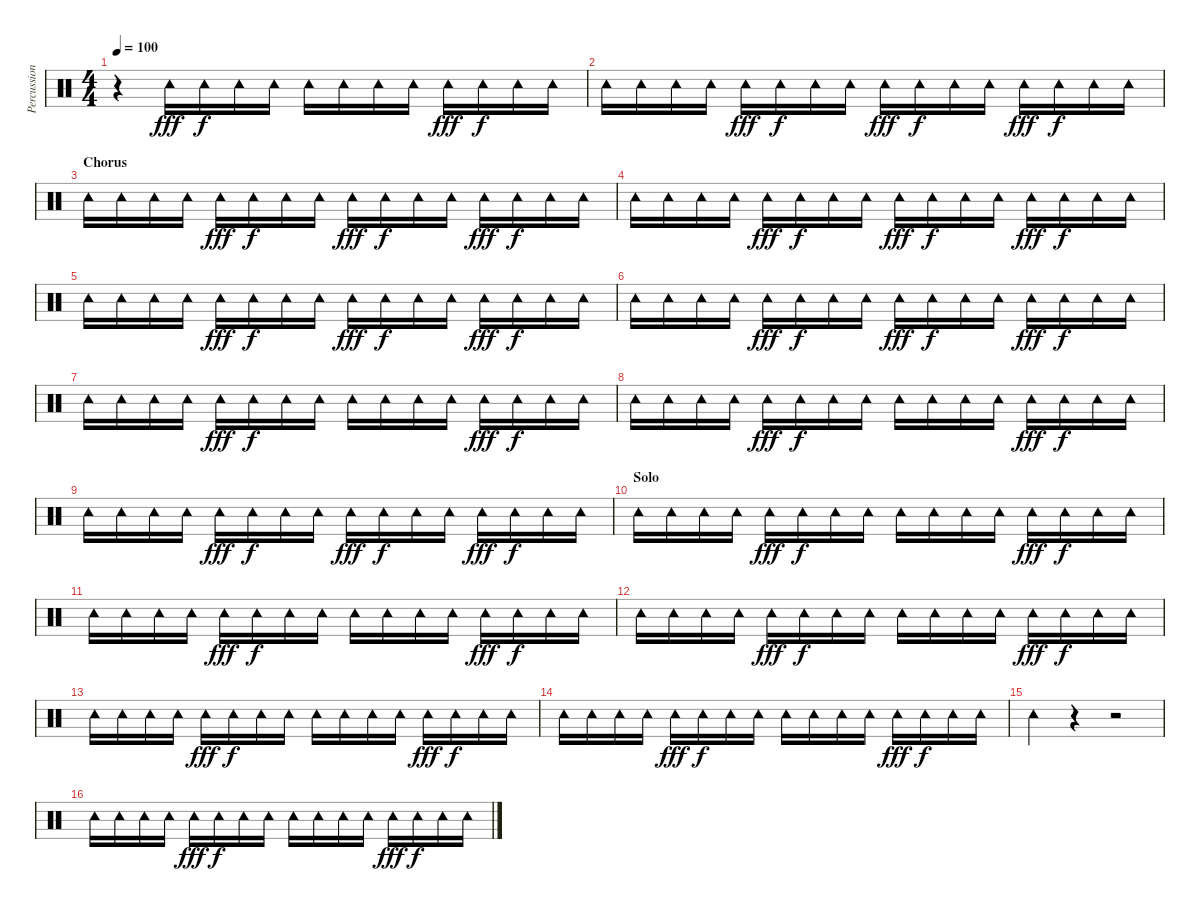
\track ("Percussion" "Percussion") {instrument percussion}
\staff {score}
\articulation defaults
\ts (4 4)
\tempo 100
\clef neutral
\ks c
r.4{dy f} "Tambourine (hit)".16{dy fff} "Tambourine (hit)".16{dy f} "Tambourine (hit)".16 "Tambourine (hit)".16 "Tambourine (hit)".16 "Tambourine (hit)".16 "Tambourine (hit)".16 "Tambourine (hit)".16 "Tambourine (hit)".16{dy fff} "Tambourine (hit)".16{dy f} "Tambourine (hit)".16 "Tambourine (hit)".16 |
"Tambourine (hit)".16 "Tambourine (hit)".16 "Tambourine (hit)".16 "Tambourine (hit)".16 "Tambourine (hit)".16{dy fff} "Tambourine (hit)".16{dy f} "Tambourine (hit)".16 "Tambourine (hit)".16 "Tambourine (hit)".16{dy fff} "Tambourine (hit)".16{dy f} "Tambourine (hit)".16 "Tambourine (hit)".16 "Tambourine (hit)".16{dy fff} "Tambourine (hit)".16{dy f} "Tambourine (hit)".16 "Tambourine (hit)".16 |
\section ("" "Chorus")
"Tambourine (hit)".16 "Tambourine (hit)".16 "Tambourine (hit)".16 "Tambourine (hit)".16 "Tambourine (hit)".16{dy fff} "Tambourine (hit)".16{dy f} "Tambourine (hit)".16 "Tambourine (hit)".16 "Tambourine (hit)".16{dy fff} "Tambourine (hit)".16{dy f} "Tambourine (hit)".16 "Tambourine (hit)".16 "Tambourine (hit)".16{dy fff} "Tambourine (hit)".16{dy f} "Tambourine (hit)".16 "Tambourine (hit)".16 |
"Tambourine (hit)".16 "Tambourine (hit)".16 "Tambourine (hit)".16 "Tambourine (hit)".16 "Tambourine (hit)".16{dy fff} "Tambourine (hit)".16{dy f} "Tambourine (hit)".16 "Tambourine (hit)".16 "Tambourine (hit)".16{dy fff} "Tambourine (hit)".16{dy f} "Tambourine (hit)".16 "Tambourine (hit)".16 "Tambourine (hit)".16{dy fff} "Tambourine (hit)".16{dy f} "Tambourine (hit)".16 "Tambourine (hit)".16 |
"Tambourine (hit)".16 "Tambourine (hit)".16 "Tambourine (hit)".16 "Tambourine (hit)".16 "Tambourine (hit)".16{dy fff} "Tambourine (hit)".16{dy f} "Tambourine (hit)".16 "Tambourine (hit)".16 "Tambourine (hit)".16{dy fff} "Tambourine (hit)".16{dy f} "Tambourine (hit)".16 "Tambourine (hit)".16 "Tambourine (hit)".16{dy fff} "Tambourine (hit)".16{dy f} "Tambourine (hit)".16 "Tambourine (hit)".16 |
"Tambourine (hit)".16 "Tambourine (hit)".16 "Tambourine (hit)".16 "Tambourine (hit)".16 "Tambourine (hit)".16{dy fff} "Tambourine (hit)".16{dy f} "Tambourine (hit)".16 "Tambourine (hit)".16 "Tambourine (hit)".16{dy fff} "Tambourine (hit)".16{dy f} "Tambourine (hit)".16 "Tambourine (hit)".16 "Tambourine (hit)".16{dy fff} "Tambourine (hit)".16{dy f} "Tambourine (hit)".16 "Tambourine (hit)".16 |
"Tambourine (hit)".16 "Tambourine (hit)".16 "Tambourine (hit)".16 "Tambourine (hit)".16 "Tambourine (hit)".16{dy fff} "Tambourine (hit)".16{dy f} "Tambourine (hit)".16 "Tambourine (hit)".16 "Tambourine (hit)".16 "Tambourine (hit)".16 "Tambourine (hit)".16 "Tambourine (hit)".16 "Tambourine (hit)".16{dy fff} "Tambourine (hit)".16{dy f} "Tambourine (hit)".16 "Tambourine (hit)".16 |
"Tambourine (hit)".16 "Tambourine (hit)".16 "Tambourine (hit)".16 "Tambourine (hit)".16 "Tambourine (hit)".16{dy fff} "Tambourine (hit)".16{dy f} "Tambourine (hit)".16 "Tambourine (hit)".16 "Tambourine (hit)".16 "Tambourine (hit)".16 "Tambourine (hit)".16 "Tambourine (hit)".16 "Tambourine (hit)".16{dy fff} "Tambourine (hit)".16{dy f} "Tambourine (hit)".16 "Tambourine (hit)".16 |
"Tambourine (hit)".16 "Tambourine (hit)".16 "Tambourine (hit)".16 "Tambourine (hit)".16 "Tambourine (hit)".16{dy fff} "Tambourine (hit)".16{dy f} "Tambourine (hit)".16 "Tambourine (hit)".16 "Tambourine (hit)".16{dy fff} "Tambourine (hit)".16{dy f} "Tambourine (hit)".16 "Tambourine (hit)".16 "Tambourine (hit)".16{dy fff} "Tambourine (hit)".16{dy f} "Tambourine (hit)".16 "Tambourine (hit)".16 |
\section ("" "Solo")
"Tambourine (hit)".16 "Tambourine (hit)".16 "Tambourine (hit)".16 "Tambourine (hit)".16 "Tambourine (hit)".16{dy fff} "Tambourine (hit)".16{dy f} "Tambourine (hit)".16 "Tambourine (hit)".16 "Tambourine (hit)".16 "Tambourine (hit)".16 "Tambourine (hit)".16 "Tambourine (hit)".16 "Tambourine (hit)".16{dy fff} "Tambourine (hit)".16{dy f} "Tambourine (hit)".16 "Tambourine (hit)".16 |
"Tambourine (hit)".16 "Tambourine (hit)".16 "Tambourine (hit)".16 "Tambourine (hit)".16 "Tambourine (hit)".16{dy fff} "Tambourine (hit)".16{dy f} "Tambourine (hit)".16 "Tambourine (hit)".16 "Tambourine (hit)".16 "Tambourine (hit)".16 "Tambourine (hit)".16 "Tambourine (hit)".16 "Tambourine (hit)".16{dy fff} "Tambourine (hit)".16{dy f} "Tambourine (hit)".16 "Tambourine (hit)".16 |
"Tambourine (hit)".16 "Tambourine (hit)".16 "Tambourine (hit)".16 "Tambourine (hit)".16 "Tambourine (hit)".16{dy fff} "Tambourine (hit)".16{dy f} "Tambourine (hit)".16 "Tambourine (hit)".16 "Tambourine (hit)".16 "Tambourine (hit)".16 "Tambourine (hit)".16 "Tambourine (hit)".16 "Tambourine (hit)".16{dy fff} "Tambourine (hit)".16{dy f} "Tambourine (hit)".16 "Tambourine (hit)".16 |
"Tambourine (hit)".16 "Tambourine (hit)".16 "Tambourine (hit)".16 "Tambourine (hit)".16 "Tambourine (hit)".16{dy fff} "Tambourine (hit)".16{dy f} "Tambourine (hit)".16 "Tambourine (hit)".16 "Tambourine (hit)".16 "Tambourine (hit)".16 "Tambourine (hit)".16 "Tambourine (hit)".16 "Tambourine (hit)".16{dy fff} "Tambourine (hit)".16{dy f} "Tambourine (hit)".16 "Tambourine (hit)".16 |
"Tambourine (hit)".16 "Tambourine (hit)".16 "Tambourine (hit)".16 "Tambourine (hit)".16 "Tambourine (hit)".16{dy fff} "Tambourine (hit)".16{dy f} "Tambourine (hit)".16 "Tambourine (hit)".16 "Tambourine (hit)".16 "Tambourine (hit)".16 "Tambourine (hit)".16 "Tambourine (hit)".16 "Tambourine (hit)".16{dy fff} "Tambourine (hit)".16{dy f} "Tambourine (hit)".16 "Tambourine (hit)".16 |
"Tambourine (hit)".4 r.4 r.2 |
"Tambourine (hit)".16 "Tambourine (hit)".16 "Tambourine (hit)".16 "Tambourine (hit)".16 "Tambourine (hit)".16{dy fff} "Tambourine (hit)".16{dy f} "Tambourine (hit)".16 "Tambourine (hit)".16 "Tambourine (hit)".16 "Tambourine (hit)".16 "Tambourine (hit)".16 "Tambourine (hit)".16 "Tambourine (hit)".16{dy fff} "Tambourine (hit)".16{dy f} "Tambourine (hit)".16 "Tambourine (hit)".16
